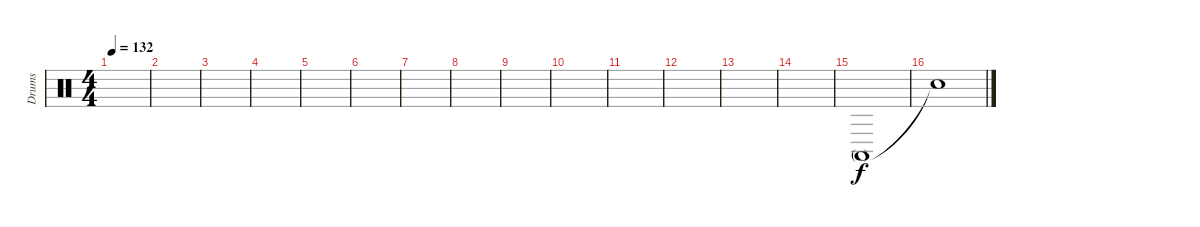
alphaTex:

\track ("Drums" "Drums") {instrument percussion}
\staff {score}
\articulation defaults
\ts (4 4)
\tempo 132
\clef neutral
\ks c
|
|
|
|
|
|
|
|
|
|
|
|
|
|
"Conga high (mute)".1{volume 13} |
"Snare (hit)"{t}.1{dy f}
